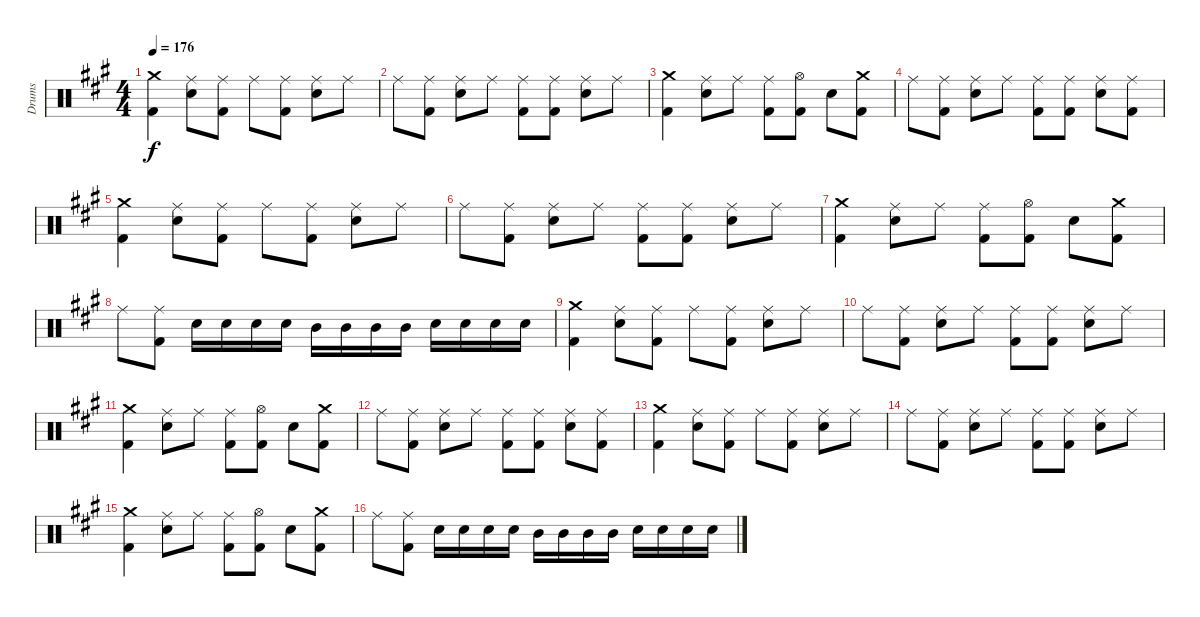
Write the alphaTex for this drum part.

\track ("Drums" "Drums") {instrument percussion}
\staff {score}
\articulation defaults
\ts (4 4)
\tempo 176
\clef neutral
\ks a
("Crash medium (hit)" "Kick (hit) 2").4{dy f} ("Ride (middle)" "Electric Snare (hit)").8 ("Ride (middle)" "Kick (hit) 2").8 "Ride (middle)".8 ("Ride (middle)" "Kick (hit) 2").8 ("Ride (middle)" "Electric Snare (hit)").8 "Ride (middle)".8 |
"Ride (middle)".8 ("Ride (middle)" "Kick (hit) 2").8 ("Ride (middle)" "Electric Snare (hit)").8 "Ride (middle)".8 ("Ride (middle)" "Kick (hit) 2").8 ("Ride (middle)" "Kick (hit) 2").8 ("Ride (middle)" "Electric Snare (hit)").8 "Ride (middle)".8 |
("Crash medium (hit)" "Kick (hit) 2").4 ("Ride (middle)" "Electric Snare (hit)").8 "Ride (middle)".8 ("Ride (middle)" "Kick (hit) 2").8 ("Hi-Hat (open)" "Kick (hit) 2").8 "Electric Snare (hit)".8 ("Crash medium (hit)" "Kick (hit) 2").8 |
"Ride (middle)".8 ("Ride (middle)" "Kick (hit) 2").8 ("Ride (middle)" "Electric Snare (hit)").8 "Ride (middle)".8 ("Ride (middle)" "Kick (hit) 2").8 ("Ride (middle)" "Kick (hit) 2").8 ("Ride (middle)" "Electric Snare (hit)").8 ("Ride (middle)" "Kick (hit) 2").8 |
("Crash medium (hit)" "Kick (hit) 2").4 ("Ride (middle)" "Electric Snare (hit)").8 ("Ride (middle)" "Kick (hit) 2").8 "Ride (middle)".8 ("Ride (middle)" "Kick (hit) 2").8 ("Ride (middle)" "Electric Snare (hit)").8 "Ride (middle)".8 |
"Ride (middle)".8 ("Ride (middle)" "Kick (hit) 2").8 ("Ride (middle)" "Electric Snare (hit)").8 "Ride (middle)".8 ("Ride (middle)" "Kick (hit) 2").8 ("Ride (middle)" "Kick (hit) 2").8 ("Ride (middle)" "Electric Snare (hit)").8 "Ride (middle)".8 |
("Crash medium (hit)" "Kick (hit) 2").4 ("Ride (middle)" "Electric Snare (hit)").8 "Ride (middle)".8 ("Ride (middle)" "Kick (hit) 2").8 ("Hi-Hat (open)" "Kick (hit) 2").8 "Electric Snare (hit)".8 ("Crash medium (hit)" "Kick (hit) 2").8 |
"Ride (middle)".8 ("Ride (middle)" "Kick (hit) 2").8 "Electric Snare (hit)".16 "Electric Snare (hit)".16 "Electric Snare (hit)".16 "Electric Snare (hit)".16 "Mid Tom (hit)".16 "Mid Tom (hit)".16 "Mid Tom (hit)".16 "Mid Tom (hit)".16 "Electric Snare (hit)".16 "Electric Snare (hit)".16 "Electric Snare (hit)".16 "Electric Snare (hit)".16 |
("Crash medium (hit)" "Kick (hit) 2").4 ("Ride (middle)" "Electric Snare (hit)").8 ("Ride (middle)" "Kick (hit) 2").8 "Ride (middle)".8 ("Ride (middle)" "Kick (hit) 2").8 ("Ride (middle)" "Electric Snare (hit)").8 "Ride (middle)".8 |
"Ride (middle)".8 ("Ride (middle)" "Kick (hit) 2").8 ("Ride (middle)" "Electric Snare (hit)").8 "Ride (middle)".8 ("Ride (middle)" "Kick (hit) 2").8 ("Ride (middle)" "Kick (hit) 2").8 ("Ride (middle)" "Electric Snare (hit)").8 "Ride (middle)".8 |
("Crash medium (hit)" "Kick (hit) 2").4 ("Ride (middle)" "Electric Snare (hit)").8 "Ride (middle)".8 ("Ride (middle)" "Kick (hit) 2").8 ("Hi-Hat (open)" "Kick (hit) 2").8 "Electric Snare (hit)".8 ("Crash medium (hit)" "Kick (hit) 2").8 |
"Ride (middle)".8 ("Ride (middle)" "Kick (hit) 2").8 ("Ride (middle)" "Electric Snare (hit)").8 "Ride (middle)".8 ("Ride (middle)" "Kick (hit) 2").8 ("Ride (middle)" "Kick (hit) 2").8 ("Ride (middle)" "Electric Snare (hit)").8 ("Ride (middle)" "Kick (hit) 2").8 |
("Crash medium (hit)" "Kick (hit) 2").4 ("Ride (middle)" "Electric Snare (hit)").8 ("Ride (middle)" "Kick (hit) 2").8 "Ride (middle)".8 ("Ride (middle)" "Kick (hit) 2").8 ("Ride (middle)" "Electric Snare (hit)").8 "Ride (middle)".8 |
"Ride (middle)".8 ("Ride (middle)" "Kick (hit) 2").8 ("Ride (middle)" "Electric Snare (hit)").8 "Ride (middle)".8 ("Ride (middle)" "Kick (hit) 2").8 ("Ride (middle)" "Kick (hit) 2").8 ("Ride (middle)" "Electric Snare (hit)").8 "Ride (middle)".8 |
("Crash medium (hit)" "Kick (hit) 2").4 ("Ride (middle)" "Electric Snare (hit)").8 "Ride (middle)".8 ("Ride (middle)" "Kick (hit) 2").8 ("Hi-Hat (open)" "Kick (hit) 2").8 "Electric Snare (hit)".8 ("Crash medium (hit)" "Kick (hit) 2").8 |
"Ride (middle)".8 ("Ride (middle)" "Kick (hit) 2").8 "Electric Snare (hit)".16 "Electric Snare (hit)".16 "Electric Snare (hit)".16 "Electric Snare (hit)".16 "Mid Tom (hit)".16 "Mid Tom (hit)".16 "Mid Tom (hit)".16 "Mid Tom (hit)".16 "Electric Snare (hit)".16 "Electric Snare (hit)".16 "Electric Snare (hit)".16 "Electric Snare (hit)".16
